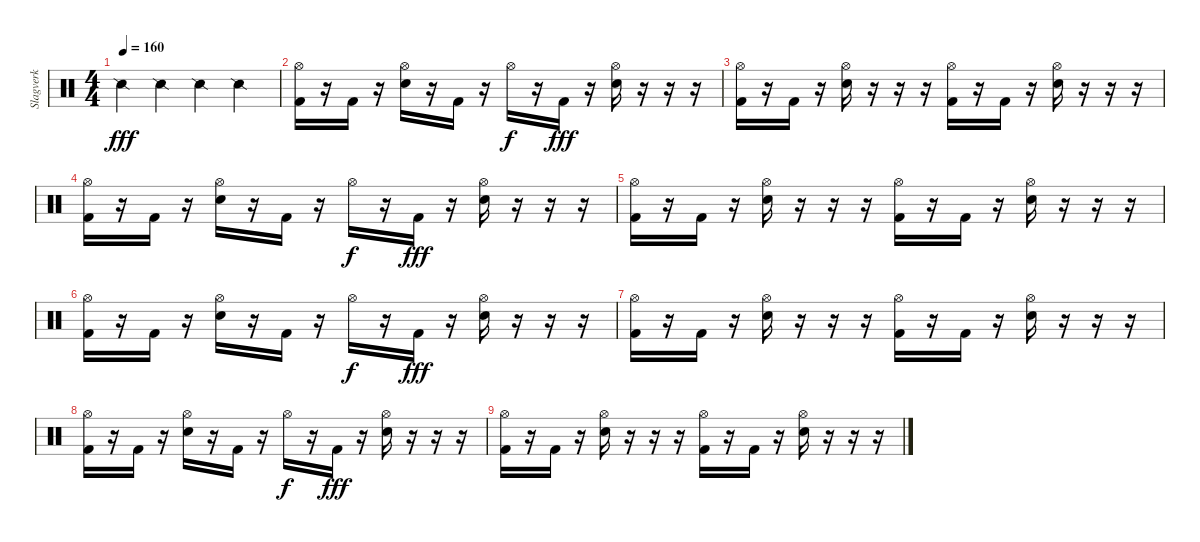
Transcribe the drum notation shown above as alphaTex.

\track ("Slagverk" "Slagverk") {instrument percussion}
\staff {score}
\articulation defaults
\ts (4 4)
\tempo 160
\clef neutral
\ks c "Snare (side stick) 2".4{dy fff} "Snare (side stick) 2".4 "Snare (side stick) 2".4 "Snare (side stick) 2".4
|
("Hi-Hat (open)" "Kick (hit) 2").16 r.16 "Kick (hit) 2".16 r.16 ("Hi-Hat (open)" "Electric Snare (hit)").16 r.16 "Kick (hit) 2".16 r.16 "Hi-Hat (open)".16{dy f} r.16 "Kick (hit) 2".16{dy fff} r.16 ("Hi-Hat (open)" "Electric Snare (hit)").16 r.16 r.16 r.16 |
("Hi-Hat (open)" "Kick (hit) 2").16 r.16 "Kick (hit) 2".16 r.16 ("Hi-Hat (open)" "Electric Snare (hit)").16 r.16 r.16 r.16 ("Hi-Hat (open)" "Kick (hit) 2").16 r.16 "Kick (hit) 2".16 r.16 ("Hi-Hat (open)" "Electric Snare (hit)").16 r.16 r.16 r.16 |
("Hi-Hat (open)" "Kick (hit) 2").16 r.16 "Kick (hit) 2".16 r.16 ("Hi-Hat (open)" "Electric Snare (hit)").16 r.16 "Kick (hit) 2".16 r.16 "Hi-Hat (open)".16{dy f} r.16 "Kick (hit) 2".16{dy fff} r.16 ("Hi-Hat (open)" "Electric Snare (hit)").16 r.16 r.16 r.16 |
("Hi-Hat (open)" "Kick (hit) 2").16 r.16 "Kick (hit) 2".16 r.16 ("Hi-Hat (open)" "Electric Snare (hit)").16 r.16 r.16 r.16 ("Hi-Hat (open)" "Kick (hit) 2").16 r.16 "Kick (hit) 2".16 r.16 ("Hi-Hat (open)" "Electric Snare (hit)").16 r.16 r.16 r.16 |
("Hi-Hat (open)" "Kick (hit) 2").16 r.16 "Kick (hit) 2".16 r.16 ("Hi-Hat (open)" "Electric Snare (hit)").16 r.16 "Kick (hit) 2".16 r.16 "Hi-Hat (open)".16{dy f} r.16 "Kick (hit) 2".16{dy fff} r.16 ("Hi-Hat (open)" "Electric Snare (hit)").16 r.16 r.16 r.16 |
("Hi-Hat (open)" "Kick (hit) 2").16 r.16 "Kick (hit) 2".16 r.16 ("Hi-Hat (open)" "Electric Snare (hit)").16 r.16 r.16 r.16 ("Hi-Hat (open)" "Kick (hit) 2").16 r.16 "Kick (hit) 2".16 r.16 ("Hi-Hat (open)" "Electric Snare (hit)").16 r.16 r.16 r.16 |
("Hi-Hat (open)" "Kick (hit) 2").16 r.16 "Kick (hit) 2".16 r.16 ("Hi-Hat (open)" "Electric Snare (hit)").16 r.16 "Kick (hit) 2".16 r.16 "Hi-Hat (open)".16{dy f} r.16 "Kick (hit) 2".16{dy fff} r.16 ("Hi-Hat (open)" "Electric Snare (hit)").16 r.16 r.16 r.16 |
("Hi-Hat (open)" "Kick (hit) 2").16 r.16 "Kick (hit) 2".16 r.16 ("Hi-Hat (open)" "Electric Snare (hit)").16 r.16 r.16 r.16 ("Hi-Hat (open)" "Kick (hit) 2").16 r.16 "Kick (hit) 2".16 r.16 ("Hi-Hat (open)" "Electric Snare (hit)").16 r.16 r.16 r.16
